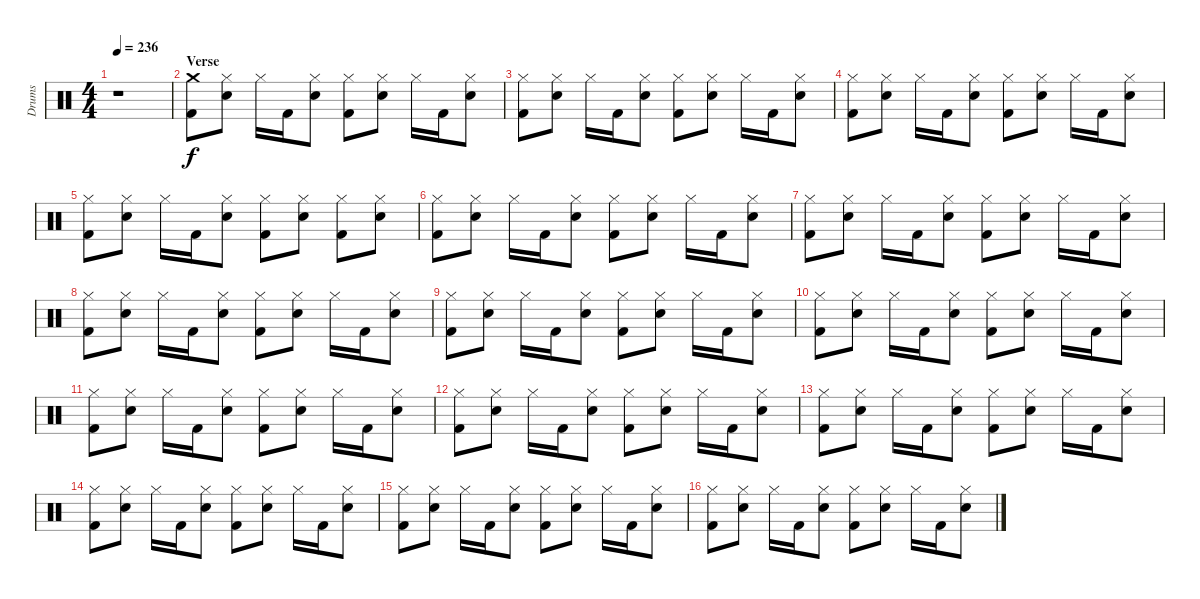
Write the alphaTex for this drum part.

\track ("Drums" "Drums") {instrument percussion}
\staff {score}
\articulation defaults
\ts (4 4)
\tempo 236
\clef neutral
\ks c
r.1{dy f} |
\section ("" "Verse")
("Crash medium (hit)" "Kick (hit) 2").8 ("Hi-Hat (closed)" "Electric Snare (hit)").8 "Hi-Hat (closed)".16 "Kick (hit) 2".16 ("Hi-Hat (closed)" "Electric Snare (hit)").8 ("Hi-Hat (closed)" "Kick (hit) 2").8 ("Hi-Hat (closed)" "Electric Snare (hit)").8 "Hi-Hat (closed)".16 "Kick (hit) 2".16 ("Hi-Hat (closed)" "Electric Snare (hit)").8 |
("Hi-Hat (closed)" "Kick (hit) 2").8 ("Hi-Hat (closed)" "Electric Snare (hit)").8 "Hi-Hat (closed)".16 "Kick (hit) 2".16 ("Hi-Hat (closed)" "Electric Snare (hit)").8 ("Hi-Hat (closed)" "Kick (hit) 2").8 ("Hi-Hat (closed)" "Electric Snare (hit)").8 "Hi-Hat (closed)".16 "Kick (hit) 2".16 ("Hi-Hat (closed)" "Electric Snare (hit)").8 |
("Hi-Hat (closed)" "Kick (hit) 2").8 ("Hi-Hat (closed)" "Electric Snare (hit)").8 "Hi-Hat (closed)".16 "Kick (hit) 2".16 ("Hi-Hat (closed)" "Electric Snare (hit)").8 ("Hi-Hat (closed)" "Kick (hit) 2").8 ("Hi-Hat (closed)" "Electric Snare (hit)").8 "Hi-Hat (closed)".16 "Kick (hit) 2".16 ("Hi-Hat (closed)" "Electric Snare (hit)").8 |
("Hi-Hat (closed)" "Kick (hit) 2").8 ("Hi-Hat (closed)" "Electric Snare (hit)").8 "Hi-Hat (closed)".16 "Kick (hit) 2".16 ("Hi-Hat (closed)" "Electric Snare (hit)").8 ("Hi-Hat (closed)" "Kick (hit) 2").8 ("Hi-Hat (closed)" "Electric Snare (hit)").8 ("Hi-Hat (closed)" "Kick (hit) 2").8 ("Hi-Hat (closed)" "Electric Snare (hit)").8 |
("Hi-Hat (closed)" "Kick (hit) 2").8 ("Hi-Hat (closed)" "Electric Snare (hit)").8 "Hi-Hat (closed)".16 "Kick (hit) 2".16 ("Hi-Hat (closed)" "Electric Snare (hit)").8 ("Hi-Hat (closed)" "Kick (hit) 2").8 ("Hi-Hat (closed)" "Electric Snare (hit)").8 "Hi-Hat (closed)".16 "Kick (hit) 2".16 ("Hi-Hat (closed)" "Electric Snare (hit)").8 |
("Hi-Hat (closed)" "Kick (hit) 2").8 ("Hi-Hat (closed)" "Electric Snare (hit)").8 "Hi-Hat (closed)".16 "Kick (hit) 2".16 ("Hi-Hat (closed)" "Electric Snare (hit)").8 ("Hi-Hat (closed)" "Kick (hit) 2").8 ("Hi-Hat (closed)" "Electric Snare (hit)").8 "Hi-Hat (closed)".16 "Kick (hit) 2".16 ("Hi-Hat (closed)" "Electric Snare (hit)").8 |
("Hi-Hat (closed)" "Kick (hit) 2").8 ("Hi-Hat (closed)" "Electric Snare (hit)").8 "Hi-Hat (closed)".16 "Kick (hit) 2".16 ("Hi-Hat (closed)" "Electric Snare (hit)").8 ("Hi-Hat (closed)" "Kick (hit) 2").8 ("Hi-Hat (closed)" "Electric Snare (hit)").8 "Hi-Hat (closed)".16 "Kick (hit) 2".16 ("Hi-Hat (closed)" "Electric Snare (hit)").8 |
("Hi-Hat (closed)" "Kick (hit) 2").8 ("Hi-Hat (closed)" "Electric Snare (hit)").8 "Hi-Hat (closed)".16 "Kick (hit) 2".16 ("Hi-Hat (closed)" "Electric Snare (hit)").8 ("Hi-Hat (closed)" "Kick (hit) 2").8 ("Hi-Hat (closed)" "Electric Snare (hit)").8 "Hi-Hat (closed)".16 "Kick (hit) 2".16 ("Hi-Hat (closed)" "Electric Snare (hit)").8 |
("Hi-Hat (closed)" "Kick (hit) 2").8 ("Hi-Hat (closed)" "Electric Snare (hit)").8 "Hi-Hat (closed)".16 "Kick (hit) 2".16 ("Hi-Hat (closed)" "Electric Snare (hit)").8 ("Hi-Hat (closed)" "Kick (hit) 2").8 ("Hi-Hat (closed)" "Electric Snare (hit)").8 "Hi-Hat (closed)".16 "Kick (hit) 2".16 ("Hi-Hat (closed)" "Electric Snare (hit)").8 |
("Hi-Hat (closed)" "Kick (hit) 2").8 ("Hi-Hat (closed)" "Electric Snare (hit)").8 "Hi-Hat (closed)".16 "Kick (hit) 2".16 ("Hi-Hat (closed)" "Electric Snare (hit)").8 ("Hi-Hat (closed)" "Kick (hit) 2").8 ("Hi-Hat (closed)" "Electric Snare (hit)").8 "Hi-Hat (closed)".16 "Kick (hit) 2".16 ("Hi-Hat (closed)" "Electric Snare (hit)").8 |
("Hi-Hat (closed)" "Kick (hit) 2").8 ("Hi-Hat (closed)" "Electric Snare (hit)").8 "Hi-Hat (closed)".16 "Kick (hit) 2".16 ("Hi-Hat (closed)" "Electric Snare (hit)").8 ("Hi-Hat (closed)" "Kick (hit) 2").8 ("Hi-Hat (closed)" "Electric Snare (hit)").8 "Hi-Hat (closed)".16 "Kick (hit) 2".16 ("Hi-Hat (closed)" "Electric Snare (hit)").8 |
("Hi-Hat (closed)" "Kick (hit) 2").8 ("Hi-Hat (closed)" "Electric Snare (hit)").8 "Hi-Hat (closed)".16 "Kick (hit) 2".16 ("Hi-Hat (closed)" "Electric Snare (hit)").8 ("Hi-Hat (closed)" "Kick (hit) 2").8 ("Hi-Hat (closed)" "Electric Snare (hit)").8 "Hi-Hat (closed)".16 "Kick (hit) 2".16 ("Hi-Hat (closed)" "Electric Snare (hit)").8 |
("Hi-Hat (closed)" "Kick (hit) 2").8 ("Hi-Hat (closed)" "Electric Snare (hit)").8 "Hi-Hat (closed)".16 "Kick (hit) 2".16 ("Hi-Hat (closed)" "Electric Snare (hit)").8 ("Hi-Hat (closed)" "Kick (hit) 2").8 ("Hi-Hat (closed)" "Electric Snare (hit)").8 "Hi-Hat (closed)".16 "Kick (hit) 2".16 ("Hi-Hat (closed)" "Electric Snare (hit)").8 |
("Hi-Hat (closed)" "Kick (hit) 2").8 ("Hi-Hat (closed)" "Electric Snare (hit)").8 "Hi-Hat (closed)".16 "Kick (hit) 2".16 ("Hi-Hat (closed)" "Electric Snare (hit)").8 ("Hi-Hat (closed)" "Kick (hit) 2").8 ("Hi-Hat (closed)" "Electric Snare (hit)").8 "Hi-Hat (closed)".16 "Kick (hit) 2".16 ("Hi-Hat (closed)" "Electric Snare (hit)").8 |
("Hi-Hat (closed)" "Kick (hit) 2").8 ("Hi-Hat (closed)" "Electric Snare (hit)").8 "Hi-Hat (closed)".16 "Kick (hit) 2".16 ("Hi-Hat (closed)" "Electric Snare (hit)").8 ("Hi-Hat (closed)" "Kick (hit) 2").8 ("Hi-Hat (closed)" "Electric Snare (hit)").8 "Hi-Hat (closed)".16 "Kick (hit) 2".16 ("Hi-Hat (closed)" "Electric Snare (hit)").8
